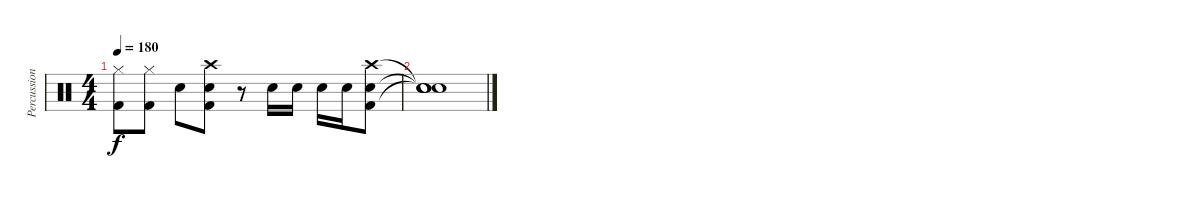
\track ("Percussion" "Percussion") {instrument percussion}
\staff {score}
\articulation defaults
\ts (4 4)
\tempo 180
\clef neutral
\ks c
("Hi-Hat (closed)" "Kick (hit) 2").8{dy f} ("Hi-Hat (closed)" "Kick (hit) 2").8 "Electric Snare (hit)".8 ("Crash high (hit)" "Electric Snare (hit)" "Kick (hit) 2").8 r.8 "Electric Snare (hit)".16 "Electric Snare (hit)".16 "Electric Snare (hit)".16 "Electric Snare (hit)".16 ("Crash high (hit)" "Electric Snare (hit)" "Kick (hit) 2").8 |
("Snare (hit)"{t} "Snare (hit)"{t} "Snare (hit)"{t} "Snare (hit)").1
